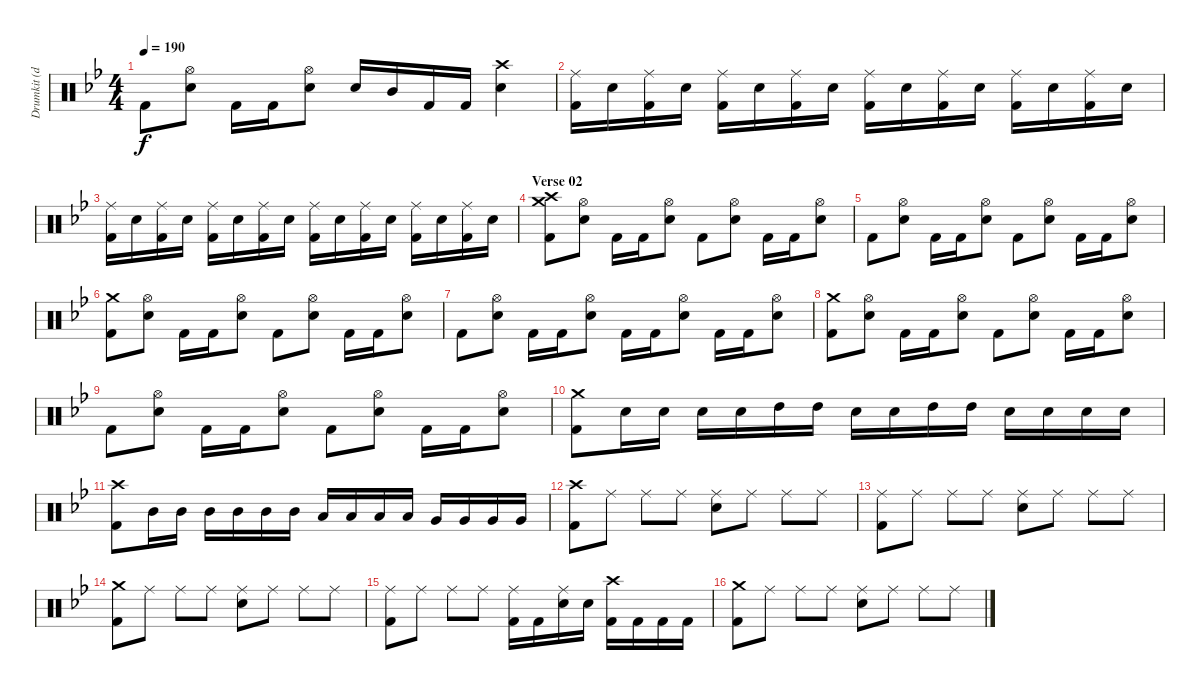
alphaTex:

\track ("Drumkit (don't unmute)" "Drumkit (d") {instrument percussion}
\staff {score}
\articulation defaults
\ts (4 4)
\tempo 190
\clef neutral
\ks bb "Kick (hit) 2".8{dy f}
("Snare (hit) 2" "Hi-Hat (open)").8 "Kick (hit) 2".16 "Kick (hit) 2".16 ("Snare (hit) 2" "Hi-Hat (open)").8 "Snare (hit) 2".16 "Mid Tom (hit)".16 "Kick (hit) 2".16 "Kick (hit) 2".16 ("Snare (hit) 2" "Crash high (hit)").4 |
("Kick (hit) 2" "Ride (middle)").16 "Snare (hit) 2".16 ("Kick (hit) 2" "Ride (middle)").16 "Snare (hit) 2".16 ("Kick (hit) 2" "Ride (middle)").16 "Snare (hit) 2".16 ("Kick (hit) 2" "Ride (middle)").16 "Snare (hit) 2".16 ("Kick (hit) 2" "Ride (middle)").16 "Snare (hit) 2".16 ("Kick (hit) 2" "Ride (middle)").16 "Snare (hit) 2".16 ("Kick (hit) 2" "Ride (middle)").16 "Snare (hit) 2".16 ("Kick (hit) 2" "Ride (middle)").16 "Snare (hit) 2".16 |
("Kick (hit) 2" "Ride (middle)").16 "Snare (hit) 2".16 ("Kick (hit) 2" "Ride (middle)").16 "Snare (hit) 2".16 ("Kick (hit) 2" "Ride (middle)").16 "Snare (hit) 2".16 ("Kick (hit) 2" "Ride (middle)").16 "Snare (hit) 2".16 ("Kick (hit) 2" "Ride (middle)").16 "Snare (hit) 2".16 ("Kick (hit) 2" "Ride (middle)").16 "Snare (hit) 2".16 ("Kick (hit) 2" "Ride (middle)").16 "Snare (hit) 2".16 ("Kick (hit) 2" "Ride (middle)").16 "Snare (hit) 2".16 |
\section ("" "Verse 02")
("Kick (hit) 2" "Crash high (hit)" "Crash medium (hit)").8 ("Snare (hit) 2" "Hi-Hat (open)").8 "Kick (hit) 2".16 "Kick (hit) 2".16 ("Snare (hit) 2" "Hi-Hat (open)").8 "Kick (hit) 2".8 ("Snare (hit) 2" "Hi-Hat (open)").8 "Kick (hit) 2".16 "Kick (hit) 2".16 ("Snare (hit) 2" "Hi-Hat (open)").8 |
"Kick (hit) 2".8 ("Snare (hit) 2" "Hi-Hat (open)").8 "Kick (hit) 2".16 "Kick (hit) 2".16 ("Snare (hit) 2" "Hi-Hat (open)").8 "Kick (hit) 2".8 ("Snare (hit) 2" "Hi-Hat (open)").8 "Kick (hit) 2".16 "Kick (hit) 2".16 ("Snare (hit) 2" "Hi-Hat (open)").8 |
("Kick (hit) 2" "Crash medium (hit)").8 ("Snare (hit) 2" "Hi-Hat (open)").8 "Kick (hit) 2".16 "Kick (hit) 2".16 ("Snare (hit) 2" "Hi-Hat (open)").8 "Kick (hit) 2".8 ("Snare (hit) 2" "Hi-Hat (open)").8 "Kick (hit) 2".16 "Kick (hit) 2".16 ("Snare (hit) 2" "Hi-Hat (open)").8 |
"Kick (hit) 2".8 ("Snare (hit) 2" "Hi-Hat (open)").8 "Kick (hit) 2".16 "Kick (hit) 2".16 ("Snare (hit) 2" "Hi-Hat (open)").8 "Kick (hit) 2".16 "Kick (hit) 2".16 ("Snare (hit) 2" "Hi-Hat (open)").8 "Kick (hit) 2".16 "Kick (hit) 2".16 ("Snare (hit) 2" "Hi-Hat (open)").8 |
("Kick (hit) 2" "Crash medium (hit)").8 ("Snare (hit) 2" "Hi-Hat (open)").8 "Kick (hit) 2".16 "Kick (hit) 2".16 ("Snare (hit) 2" "Hi-Hat (open)").8 "Kick (hit) 2".8 ("Snare (hit) 2" "Hi-Hat (open)").8 "Kick (hit) 2".16 "Kick (hit) 2".16 ("Snare (hit) 2" "Hi-Hat (open)").8 |
"Kick (hit) 2".8 ("Snare (hit) 2" "Hi-Hat (open)").8 "Kick (hit) 2".16 "Kick (hit) 2".16 ("Snare (hit) 2" "Hi-Hat (open)").8 "Kick (hit) 2".8 ("Snare (hit) 2" "Hi-Hat (open)").8 "Kick (hit) 2".16 "Kick (hit) 2".16 ("Snare (hit) 2" "Hi-Hat (open)").8 |
("Kick (hit) 2" "Crash medium (hit)").8 "Snare (hit) 2".16 "Snare (hit) 2".16 "Snare (hit) 2".16 "Snare (hit) 2".16 "High Tom (hit)".16 "High Tom (hit)".16 "Snare (hit) 2".16 "Snare (hit) 2".16 "High Tom (hit)".16 "High Tom (hit)".16 "Snare (hit) 2".16 "Snare (hit) 2".16 "Snare (hit) 2".16 "Snare (hit) 2".16 |
("Kick (hit) 2" "Crash high (hit)").8 "Mid Tom (hit)".16 "Mid Tom (hit)".16 "Mid Tom (hit)".16 "Mid Tom (hit)".16 "Mid Tom (hit)".16 "Mid Tom (hit)".16 "Low Tom (hit)".16 "Low Tom (hit)".16 "Low Tom (hit)".16 "Low Tom (hit)".16 "Very Low Tom (hit)".16 "Very Low Tom (hit)".16 "Very Low Tom (hit)".16 "Very Low Tom (hit)".16 |
("Crash high (hit)" "Kick (hit) 2").8 "Ride (middle)".8 "Ride (middle)".8 "Ride (middle)".8 ("Snare (hit) 2" "Ride (middle)").8 "Ride (middle)".8 "Ride (middle)".8 "Ride (middle)".8 |
("Kick (hit) 2" "Ride (middle)").8 "Ride (middle)".8 "Ride (middle)".8 "Ride (middle)".8 ("Snare (hit) 2" "Ride (middle)").8 "Ride (middle)".8 "Ride (middle)".8 "Ride (middle)".8 |
("Kick (hit) 2" "Crash medium (hit)").8 "Ride (middle)".8 "Ride (middle)".8 "Ride (middle)".8 ("Snare (hit) 2" "Ride (middle)").8 "Ride (middle)".8 "Ride (middle)".8 "Ride (middle)".8 |
("Kick (hit) 2" "Ride (middle)").8 "Ride (middle)".8 "Ride (middle)".8 "Ride (middle)".8 ("Ride (middle)" "Kick (hit) 2").16 "Kick (hit) 2".16 ("Snare (hit) 2" "Ride (middle)").16 "Snare (hit) 2".16 ("Kick (hit) 2" "Crash high (hit)").16 "Kick (hit) 2".16 "Kick (hit) 2".16 "Kick (hit) 2".16 |
("Kick (hit) 2" "Crash medium (hit)").8 "Ride (middle)".8 "Ride (middle)".8 "Ride (middle)".8 ("Snare (hit) 2" "Ride (middle)").8 "Ride (middle)".8 "Ride (middle)".8 "Ride (middle)".8
